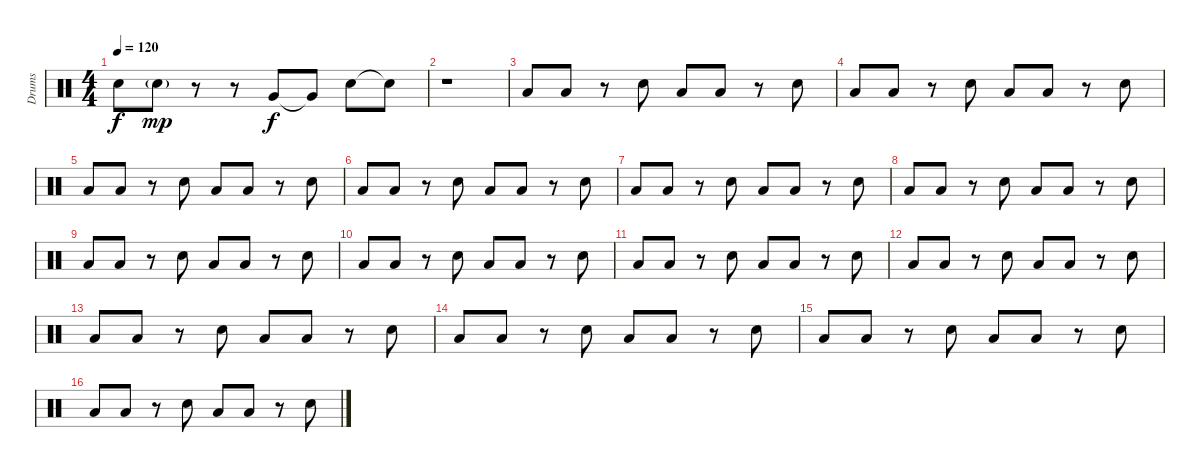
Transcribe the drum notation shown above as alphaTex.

\track ("Drums" "Drums") {instrument percussion}
\staff {score}
\articulation defaults
\ts (4 4)
\tempo 120
\clef neutral
\ks c "Electric Snare (hit)".8{dy f} "Electric Snare (hit)"{g}.8{dy mp}
r.8 r.8 "Very Low Tom (hit)".8{dy f} "Very Low Tom (hit)"{t}.8 "Electric Snare (hit)".8 "Electric Snare (hit)"{t}.8 |
r.1 |
"Low Tom (hit)".8 "Low Tom (hit)".8 r.8 "Electric Snare (hit)".8 "Low Tom (hit)".8 "Low Tom (hit)".8 r.8 "Electric Snare (hit)".8 |
"Low Tom (hit)".8 "Low Tom (hit)".8 r.8 "Electric Snare (hit)".8 "Low Tom (hit)".8 "Low Tom (hit)".8 r.8 "Electric Snare (hit)".8 |
"Low Tom (hit)".8 "Low Tom (hit)".8 r.8 "Electric Snare (hit)".8 "Low Tom (hit)".8 "Low Tom (hit)".8 r.8 "Electric Snare (hit)".8 |
"Low Tom (hit)".8 "Low Tom (hit)".8 r.8 "Electric Snare (hit)".8 "Low Tom (hit)".8 "Low Tom (hit)".8 r.8 "Electric Snare (hit)".8 |
"Low Tom (hit)".8 "Low Tom (hit)".8 r.8 "Electric Snare (hit)".8 "Low Tom (hit)".8 "Low Tom (hit)".8 r.8 "Electric Snare (hit)".8 |
"Low Tom (hit)".8 "Low Tom (hit)".8 r.8 "Electric Snare (hit)".8 "Low Tom (hit)".8 "Low Tom (hit)".8 r.8 "Electric Snare (hit)".8 |
"Low Tom (hit)".8 "Low Tom (hit)".8 r.8 "Electric Snare (hit)".8 "Low Tom (hit)".8 "Low Tom (hit)".8 r.8 "Electric Snare (hit)".8 |
"Low Tom (hit)".8 "Low Tom (hit)".8 r.8 "Electric Snare (hit)".8 "Low Tom (hit)".8 "Low Tom (hit)".8 r.8 "Electric Snare (hit)".8 |
"Low Tom (hit)".8 "Low Tom (hit)".8 r.8 "Electric Snare (hit)".8 "Low Tom (hit)".8 "Low Tom (hit)".8 r.8 "Electric Snare (hit)".8 |
"Low Tom (hit)".8 "Low Tom (hit)".8 r.8 "Electric Snare (hit)".8 "Low Tom (hit)".8 "Low Tom (hit)".8 r.8 "Electric Snare (hit)".8 |
"Low Tom (hit)".8 "Low Tom (hit)".8 r.8 "Electric Snare (hit)".8 "Low Tom (hit)".8 "Low Tom (hit)".8 r.8 "Electric Snare (hit)".8 |
"Low Tom (hit)".8 "Low Tom (hit)".8 r.8 "Electric Snare (hit)".8 "Low Tom (hit)".8 "Low Tom (hit)".8 r.8 "Electric Snare (hit)".8 |
"Low Tom (hit)".8 "Low Tom (hit)".8 r.8 "Electric Snare (hit)".8 "Low Tom (hit)".8 "Low Tom (hit)".8 r.8 "Electric Snare (hit)".8 |
"Low Tom (hit)".8 "Low Tom (hit)".8 r.8 "Electric Snare (hit)".8 "Low Tom (hit)".8 "Low Tom (hit)".8 r.8 "Electric Snare (hit)".8
